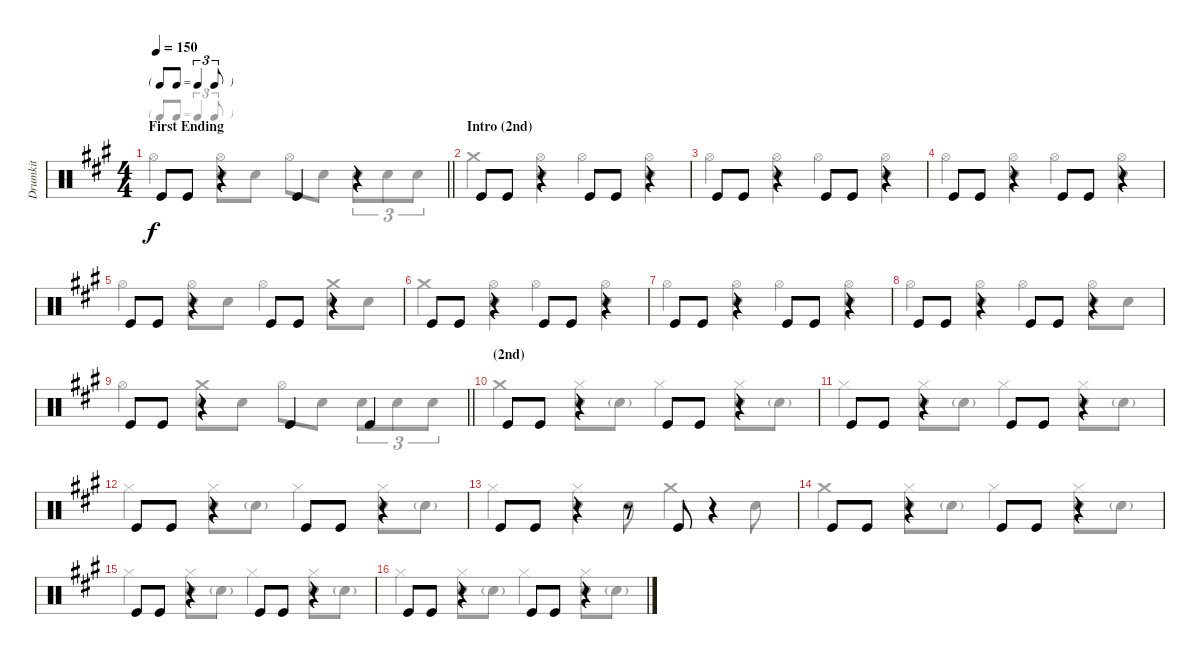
\track ("Drumkit" "Drumkit") {instrument percussion}
\staff {score}
\articulation defaults
\voice
\ts (4 4)
\tf triplet8th
\section ("" "First Ending")
\tempo 150
\clef neutral
\barLineRight lightlight
\ks a "Kick (hit)".8{dy f} "Kick (hit)".8
r.4 "Kick (hit)".4 r.4 |
\section ("" "Intro (2nd)")
"Kick (hit)".8 "Kick (hit)".8 r.4 "Kick (hit)".8 "Kick (hit)".8 r.4 |
"Kick (hit)".8 "Kick (hit)".8 r.4 "Kick (hit)".8 "Kick (hit)".8 r.4 |
"Kick (hit)".8 "Kick (hit)".8 r.4 "Kick (hit)".8 "Kick (hit)".8 r.4 |
"Kick (hit)".8 "Kick (hit)".8 r.4 "Kick (hit)".8 "Kick (hit)".8 r.4 |
"Kick (hit)".8 "Kick (hit)".8 r.4 "Kick (hit)".8 "Kick (hit)".8 r.4 |
"Kick (hit)".8 "Kick (hit)".8 r.4 "Kick (hit)".8 "Kick (hit)".8 r.4 |
"Kick (hit)".8 "Kick (hit)".8 r.4 "Kick (hit)".8 "Kick (hit)".8 r.4 |
\barLineRight lightlight "Kick (hit)".8 "Kick (hit)".8
r.4 "Kick (hit)".4 "Kick (hit)".4 |
\section ("" "(2nd)")
"Kick (hit)".8 "Kick (hit)".8 r.4 "Kick (hit)".8 "Kick (hit)".8 r.4 |
"Kick (hit)".8 "Kick (hit)".8 r.4 "Kick (hit)".8 "Kick (hit)".8 r.4 |
"Kick (hit)".8 "Kick (hit)".8 r.4 "Kick (hit)".8 "Kick (hit)".8 r.4 |
"Kick (hit)".8 "Kick (hit)".8 r.4 r.8 "Kick (hit)".8 r.4 |
"Kick (hit)".8 "Kick (hit)".8 r.4 "Kick (hit)".8 "Kick (hit)".8 r.4 |
"Kick (hit)".8 "Kick (hit)".8 r.4 "Kick (hit)".8 "Kick (hit)".8 r.4 |
"Kick (hit)".8 "Kick (hit)".8 r.4 "Kick (hit)".8 "Kick (hit)".8 r.4
\voice
\clef neutral
\ottava regular
\simile none
\barLineRight lightlight
\ks a "Hi-Hat (open)".4{dy f}
("Hi-Hat (open)" "Snare (hit) 2").8 "Snare (hit) 2".8 "Hi-Hat (open)".8 "Snare (hit) 2".8 "Snare (hit) 2".8{tu (3 2)} "Snare (hit) 2".8{tu (3 2)} "Snare (hit) 2".8{tu (3 2)} |
"Crash medium (hit)".4 ("Hi-Hat (open)" "Snare (hit) 2").4 "Hi-Hat (open)".4 ("Hi-Hat (open)" "Snare (hit) 2").4 |
"Hi-Hat (open)".4 ("Hi-Hat (open)" "Snare (hit) 2").4 "Hi-Hat (open)".4 ("Hi-Hat (open)" "Snare (hit) 2").4 |
"Hi-Hat (open)".4 ("Hi-Hat (open)" "Snare (hit) 2").4 "Hi-Hat (open)".4 ("Hi-Hat (open)" "Snare (hit) 2").4 |
"Hi-Hat (open)".4 ("Hi-Hat (open)" "Snare (hit) 2").8 "Snare (hit) 2".8 "Hi-Hat (open)".4 ("Snare (hit) 2" "Crash medium (hit)").8 "Snare (hit) 2".8 |
"Crash medium (hit)".4 ("Hi-Hat (open)" "Snare (hit) 2").4 "Hi-Hat (open)".4 ("Hi-Hat (open)" "Snare (hit) 2").4 |
"Hi-Hat (open)".4 ("Hi-Hat (open)" "Snare (hit) 2").4 "Hi-Hat (open)".4 ("Hi-Hat (open)" "Snare (hit) 2").4 |
"Hi-Hat (open)".4 ("Hi-Hat (open)" "Snare (hit) 2").4 "Hi-Hat (open)".4 ("Hi-Hat (open)" "Snare (hit) 2").8 "Snare (hit) 2".8 |
\barLineRight lightlight "Hi-Hat (open)".4
("Crash medium (hit)" "Snare (hit) 2").8 "Snare (hit) 2".8 "Hi-Hat (open)".8 "Snare (hit) 2".8 "Snare (hit) 2".8{tu (3 2)} "Snare (hit) 2".8{tu (3 2)} "Snare (hit) 2".8{tu (3 2)} |
"Crash medium (hit)".4 ("Hi-Hat (closed)" "Snare (hit) 2").8 "Snare (hit) 2"{g}.8 "Hi-Hat (closed)".4 ("Hi-Hat (closed)" "Snare (hit) 2").8 "Snare (hit) 2"{g}.8 |
"Hi-Hat (closed)".4 ("Hi-Hat (closed)" "Snare (hit) 2").8 "Snare (hit) 2"{g}.8 "Hi-Hat (closed)".4 ("Hi-Hat (closed)" "Snare (hit) 2").8 "Snare (hit) 2"{g}.8 |
"Hi-Hat (closed)".4 ("Hi-Hat (closed)" "Snare (hit) 2").8 "Snare (hit) 2"{g}.8 "Hi-Hat (closed)".4 ("Hi-Hat (closed)" "Snare (hit) 2").8 "Snare (hit) 2"{g}.8 |
"Hi-Hat (closed)".4 ("Hi-Hat (closed)" "Snare (hit) 2").4 "Snare (hit) 2".8 "Crash medium (hit)".4 "Snare (hit) 2".8 |
"Crash medium (hit)".4 ("Hi-Hat (closed)" "Snare (hit) 2").8 "Snare (hit) 2"{g}.8 "Hi-Hat (closed)".4 ("Hi-Hat (closed)" "Snare (hit) 2").8 "Snare (hit) 2"{g}.8 |
"Hi-Hat (closed)".4 ("Hi-Hat (closed)" "Snare (hit) 2").8 "Snare (hit) 2"{g}.8 "Hi-Hat (closed)".4 ("Hi-Hat (closed)" "Snare (hit) 2").8 "Snare (hit) 2"{g}.8 |
"Hi-Hat (closed)".4 ("Hi-Hat (closed)" "Snare (hit) 2").8 "Snare (hit) 2"{g}.8 "Hi-Hat (closed)".4 ("Hi-Hat (closed)" "Snare (hit) 2").8 "Snare (hit) 2"{g}.8
